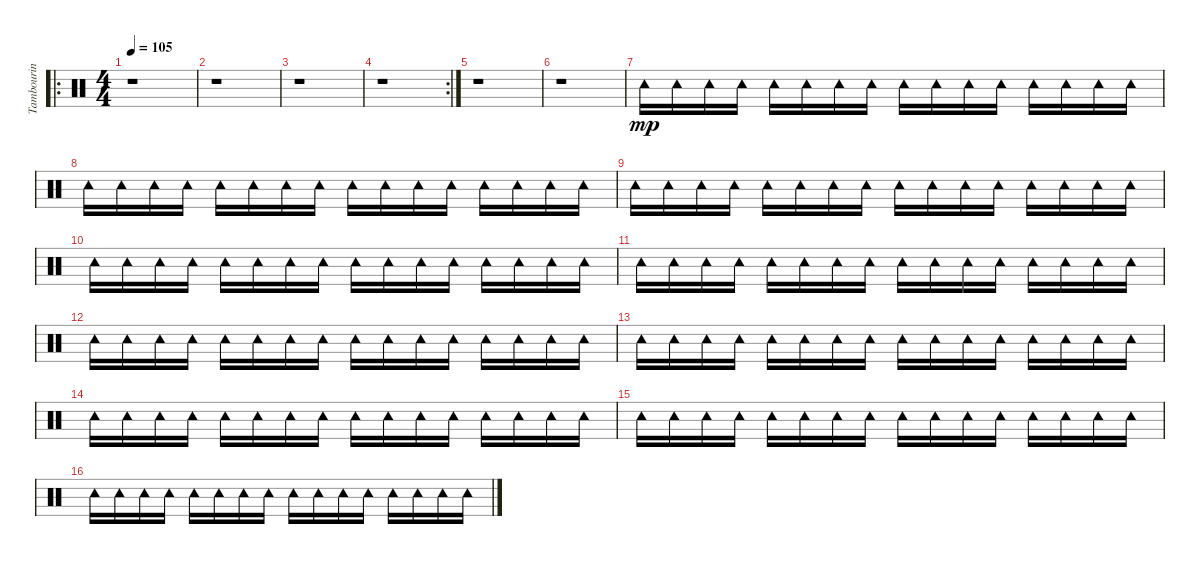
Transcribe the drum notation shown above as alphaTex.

\track ("Tambourin" "Tambourin") {instrument percussion}
\staff {score}
\articulation defaults
\ro
\ts (4 4)
\tempo 105
\clef neutral
\ks c
r.1{dy mp} |
r.1 |
r.1 |
\rc 2
r.1 |
r.1 |
r.1 |
"Tambourine (hit)".16 "Tambourine (hit)".16 "Tambourine (hit)".16 "Tambourine (hit)".16 "Tambourine (hit)".16 "Tambourine (hit)".16 "Tambourine (hit)".16 "Tambourine (hit)".16 "Tambourine (hit)".16 "Tambourine (hit)".16 "Tambourine (hit)".16 "Tambourine (hit)".16 "Tambourine (hit)".16 "Tambourine (hit)".16 "Tambourine (hit)".16 "Tambourine (hit)".16 |
"Tambourine (hit)".16 "Tambourine (hit)".16 "Tambourine (hit)".16 "Tambourine (hit)".16 "Tambourine (hit)".16 "Tambourine (hit)".16 "Tambourine (hit)".16 "Tambourine (hit)".16 "Tambourine (hit)".16 "Tambourine (hit)".16 "Tambourine (hit)".16 "Tambourine (hit)".16 "Tambourine (hit)".16 "Tambourine (hit)".16 "Tambourine (hit)".16 "Tambourine (hit)".16 |
"Tambourine (hit)".16 "Tambourine (hit)".16 "Tambourine (hit)".16 "Tambourine (hit)".16 "Tambourine (hit)".16 "Tambourine (hit)".16 "Tambourine (hit)".16 "Tambourine (hit)".16 "Tambourine (hit)".16 "Tambourine (hit)".16 "Tambourine (hit)".16 "Tambourine (hit)".16 "Tambourine (hit)".16 "Tambourine (hit)".16 "Tambourine (hit)".16 "Tambourine (hit)".16 |
"Tambourine (hit)".16 "Tambourine (hit)".16 "Tambourine (hit)".16 "Tambourine (hit)".16 "Tambourine (hit)".16 "Tambourine (hit)".16 "Tambourine (hit)".16 "Tambourine (hit)".16 "Tambourine (hit)".16 "Tambourine (hit)".16 "Tambourine (hit)".16 "Tambourine (hit)".16 "Tambourine (hit)".16 "Tambourine (hit)".16 "Tambourine (hit)".16 "Tambourine (hit)".16 |
"Tambourine (hit)".16 "Tambourine (hit)".16 "Tambourine (hit)".16 "Tambourine (hit)".16 "Tambourine (hit)".16 "Tambourine (hit)".16 "Tambourine (hit)".16 "Tambourine (hit)".16 "Tambourine (hit)".16 "Tambourine (hit)".16 "Tambourine (hit)".16 "Tambourine (hit)".16 "Tambourine (hit)".16 "Tambourine (hit)".16 "Tambourine (hit)".16 "Tambourine (hit)".16 |
"Tambourine (hit)".16 "Tambourine (hit)".16 "Tambourine (hit)".16 "Tambourine (hit)".16 "Tambourine (hit)".16 "Tambourine (hit)".16 "Tambourine (hit)".16 "Tambourine (hit)".16 "Tambourine (hit)".16 "Tambourine (hit)".16 "Tambourine (hit)".16 "Tambourine (hit)".16 "Tambourine (hit)".16 "Tambourine (hit)".16 "Tambourine (hit)".16 "Tambourine (hit)".16 |
"Tambourine (hit)".16 "Tambourine (hit)".16 "Tambourine (hit)".16 "Tambourine (hit)".16 "Tambourine (hit)".16 "Tambourine (hit)".16 "Tambourine (hit)".16 "Tambourine (hit)".16 "Tambourine (hit)".16 "Tambourine (hit)".16 "Tambourine (hit)".16 "Tambourine (hit)".16 "Tambourine (hit)".16 "Tambourine (hit)".16 "Tambourine (hit)".16 "Tambourine (hit)".16 |
"Tambourine (hit)".16 "Tambourine (hit)".16 "Tambourine (hit)".16 "Tambourine (hit)".16 "Tambourine (hit)".16 "Tambourine (hit)".16 "Tambourine (hit)".16 "Tambourine (hit)".16 "Tambourine (hit)".16 "Tambourine (hit)".16 "Tambourine (hit)".16 "Tambourine (hit)".16 "Tambourine (hit)".16 "Tambourine (hit)".16 "Tambourine (hit)".16 "Tambourine (hit)".16 |
"Tambourine (hit)".16 "Tambourine (hit)".16 "Tambourine (hit)".16 "Tambourine (hit)".16 "Tambourine (hit)".16 "Tambourine (hit)".16 "Tambourine (hit)".16 "Tambourine (hit)".16 "Tambourine (hit)".16 "Tambourine (hit)".16 "Tambourine (hit)".16 "Tambourine (hit)".16 "Tambourine (hit)".16 "Tambourine (hit)".16 "Tambourine (hit)".16 "Tambourine (hit)".16 |
"Tambourine (hit)".16 "Tambourine (hit)".16 "Tambourine (hit)".16 "Tambourine (hit)".16 "Tambourine (hit)".16 "Tambourine (hit)".16 "Tambourine (hit)".16 "Tambourine (hit)".16 "Tambourine (hit)".16 "Tambourine (hit)".16 "Tambourine (hit)".16 "Tambourine (hit)".16 "Tambourine (hit)".16 "Tambourine (hit)".16 "Tambourine (hit)".16 "Tambourine (hit)".16
